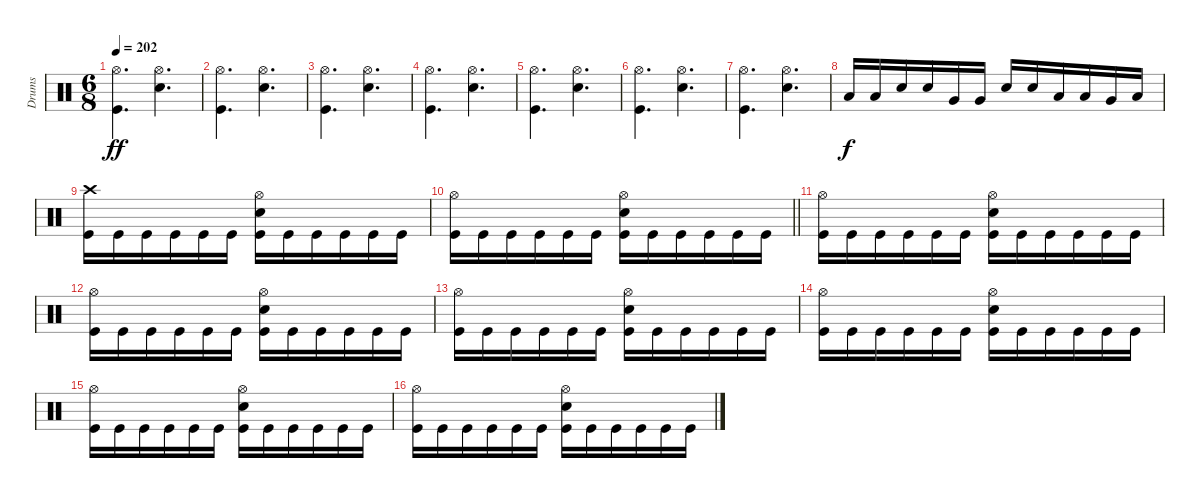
\track ("Drums" "Drums") {instrument percussion}
\staff {score}
\articulation defaults
\ts (6 8)
\tempo 202
\clef neutral
\ks c
("Hi-Hat (open)" "Kick (hit)").4{d dy ff} ("Hi-Hat (open)" "Electric Snare (hit)").4{d} |
("Hi-Hat (open)" "Kick (hit)").4{d} ("Hi-Hat (open)" "Electric Snare (hit)").4{d} |
("Hi-Hat (open)" "Kick (hit)").4{d} ("Hi-Hat (open)" "Electric Snare (hit)").4{d} |
("Hi-Hat (open)" "Kick (hit)").4{d} ("Hi-Hat (open)" "Electric Snare (hit)").4{d} |
("Hi-Hat (open)" "Kick (hit)").4{d} ("Hi-Hat (open)" "Electric Snare (hit)").4{d} |
("Hi-Hat (open)" "Kick (hit)").4{d} ("Hi-Hat (open)" "Electric Snare (hit)").4{d} |
("Hi-Hat (open)" "Kick (hit)").4{d} ("Hi-Hat (open)" "Electric Snare (hit)").4{d} |
"Low Tom (hit)".16{dy f} "Low Tom (hit)".16 "Electric Snare (hit)".16 "Electric Snare (hit)".16 "Very Low Tom (hit)".16 "Very Low Tom (hit)".16 "Electric Snare (hit)".16 "Electric Snare (hit)".16 "Low Tom (hit)".16 "Low Tom (hit)".16 "Very Low Tom (hit)".16 "Low Floor Tom (hit)".16 |
("Crash high (hit)" "Kick (hit)").16 "Kick (hit)".16 "Kick (hit)".16 "Kick (hit)".16 "Kick (hit)".16 "Kick (hit)".16 ("Hi-Hat (open)" "Electric Snare (hit)" "Kick (hit)").16 "Kick (hit)".16 "Kick (hit)".16 "Kick (hit)".16 "Kick (hit)".16 "Kick (hit)".16 |
\barLineRight lightlight
("Hi-Hat (open)" "Kick (hit)").16 "Kick (hit)".16 "Kick (hit)".16 "Kick (hit)".16 "Kick (hit)".16 "Kick (hit)".16 ("Hi-Hat (open)" "Electric Snare (hit)" "Kick (hit)").16 "Kick (hit)".16 "Kick (hit)".16 "Kick (hit)".16 "Kick (hit)".16 "Kick (hit)".16 |
\section ("" "")
("Hi-Hat (open)" "Kick (hit)").16 "Kick (hit)".16 "Kick (hit)".16 "Kick (hit)".16 "Kick (hit)".16 "Kick (hit)".16 ("Hi-Hat (open)" "Electric Snare (hit)" "Kick (hit)").16 "Kick (hit)".16 "Kick (hit)".16 "Kick (hit)".16 "Kick (hit)".16 "Kick (hit)".16 |
("Hi-Hat (open)" "Kick (hit)").16 "Kick (hit)".16 "Kick (hit)".16 "Kick (hit)".16 "Kick (hit)".16 "Kick (hit)".16 ("Hi-Hat (open)" "Electric Snare (hit)" "Kick (hit)").16 "Kick (hit)".16 "Kick (hit)".16 "Kick (hit)".16 "Kick (hit)".16 "Kick (hit)".16 |
("Hi-Hat (open)" "Kick (hit)").16 "Kick (hit)".16 "Kick (hit)".16 "Kick (hit)".16 "Kick (hit)".16 "Kick (hit)".16 ("Hi-Hat (open)" "Electric Snare (hit)" "Kick (hit)").16 "Kick (hit)".16 "Kick (hit)".16 "Kick (hit)".16 "Kick (hit)".16 "Kick (hit)".16 |
("Hi-Hat (open)" "Kick (hit)").16 "Kick (hit)".16 "Kick (hit)".16 "Kick (hit)".16 "Kick (hit)".16 "Kick (hit)".16 ("Hi-Hat (open)" "Electric Snare (hit)" "Kick (hit)").16 "Kick (hit)".16 "Kick (hit)".16 "Kick (hit)".16 "Kick (hit)".16 "Kick (hit)".16 |
("Hi-Hat (open)" "Kick (hit)").16 "Kick (hit)".16 "Kick (hit)".16 "Kick (hit)".16 "Kick (hit)".16 "Kick (hit)".16 ("Hi-Hat (open)" "Electric Snare (hit)" "Kick (hit)").16 "Kick (hit)".16 "Kick (hit)".16 "Kick (hit)".16 "Kick (hit)".16 "Kick (hit)".16 |
("Hi-Hat (open)" "Kick (hit)").16 "Kick (hit)".16 "Kick (hit)".16 "Kick (hit)".16 "Kick (hit)".16 "Kick (hit)".16 ("Hi-Hat (open)" "Electric Snare (hit)" "Kick (hit)").16 "Kick (hit)".16 "Kick (hit)".16 "Kick (hit)".16 "Kick (hit)".16 "Kick (hit)".16
